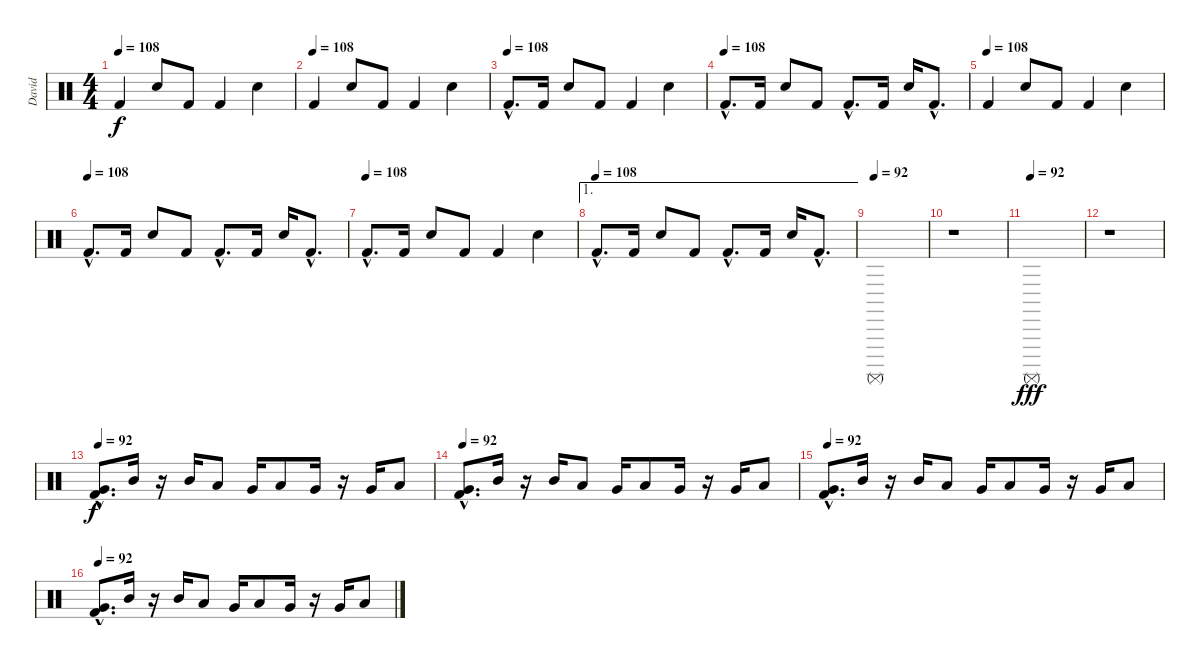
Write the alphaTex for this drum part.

\track ("David" "David") {instrument percussion}
\staff {score}
\articulation defaults
\ts (4 4)
\tempo 108
\clef neutral
\ks c "Kick (hit) 2".4{dy f} "Snare (hit) 2".8 "Kick (hit) 2".8 "Kick (hit) 2".4 "Snare (hit) 2".4
|
\tempo (108)
"Kick (hit) 2".4 "Snare (hit) 2".8 "Kick (hit) 2".8 "Kick (hit) 2".4 "Snare (hit) 2".4 |
\tempo (108)
"Kick (hit) 2"{hac}.8{d} "Kick (hit) 2".16 "Snare (hit) 2".8 "Kick (hit) 2".8 "Kick (hit) 2".4 "Snare (hit) 2".4 |
\tempo (108)
"Kick (hit) 2"{hac}.8{d} "Kick (hit) 2".16 "Snare (hit) 2".8 "Kick (hit) 2".8 "Kick (hit) 2"{hac}.8{d} "Kick (hit) 2".16 "Snare (hit) 2".16 "Kick (hit) 2"{hac}.8{d} |
\tempo (108)
"Kick (hit) 2".4 "Snare (hit) 2".8 "Kick (hit) 2".8 "Kick (hit) 2".4 "Snare (hit) 2".4 |
\tempo (108)
"Kick (hit) 2"{hac}.8{d} "Kick (hit) 2".16 "Snare (hit) 2".8 "Kick (hit) 2".8 "Kick (hit) 2"{hac}.8{d} "Kick (hit) 2".16 "Snare (hit) 2".16 "Kick (hit) 2"{hac}.8{d} |
\tempo (108)
"Kick (hit) 2"{hac}.8{d} "Kick (hit) 2".16 "Snare (hit) 2".8 "Kick (hit) 2".8 "Kick (hit) 2".4 "Snare (hit) 2".4 |
\ae 1
\tempo (108)
"Kick (hit) 2"{hac}.8{d} "Kick (hit) 2".16 "Snare (hit) 2".8 "Kick (hit) 2".8 "Kick (hit) 2"{hac}.8{d} "Kick (hit) 2".16 "Snare (hit) 2".16 "Kick (hit) 2"{hac}.8{d} |
\tempo (92)
"Surdo (mute)".1 |
r.1 |
\tempo (92)
"Surdo (mute)".1{dy fff} |
r.1 |
\tempo 92
("Very Low Tom (hit)"{hac} "Kick (hit) 2"{hac}).8{d dy f} "Mid Tom (hit)".16 r.16 "Mid Tom (hit)".16 "Low Tom (hit)".8 "Very Low Tom (hit)".16 "Low Tom (hit)".8 "Very Low Tom (hit)".16 r.16 "Very Low Tom (hit)".16 "Low Floor Tom (hit)".8 |
\tempo 92
("Very Low Tom (hit)"{hac} "Kick (hit) 2"{hac}).8{d} "Mid Tom (hit)".16 r.16 "Mid Tom (hit)".16 "Low Tom (hit)".8 "Very Low Tom (hit)".16 "Low Tom (hit)".8 "Very Low Tom (hit)".16 r.16 "Very Low Tom (hit)".16 "Low Floor Tom (hit)".8 |
\tempo 92
("Very Low Tom (hit)"{hac} "Kick (hit) 2"{hac}).8{d} "Mid Tom (hit)".16 r.16 "Mid Tom (hit)".16 "Low Tom (hit)".8 "Very Low Tom (hit)".16 "Low Tom (hit)".8 "Very Low Tom (hit)".16 r.16 "Very Low Tom (hit)".16 "Low Floor Tom (hit)".8 |
\tempo 92
("Very Low Tom (hit)"{hac} "Kick (hit) 2"{hac}).8{d} "Mid Tom (hit)".16 r.16 "Mid Tom (hit)".16 "Low Tom (hit)".8 "Very Low Tom (hit)".16 "Low Tom (hit)".8 "Very Low Tom (hit)".16 r.16 "Very Low Tom (hit)".16 "Low Floor Tom (hit)".8
